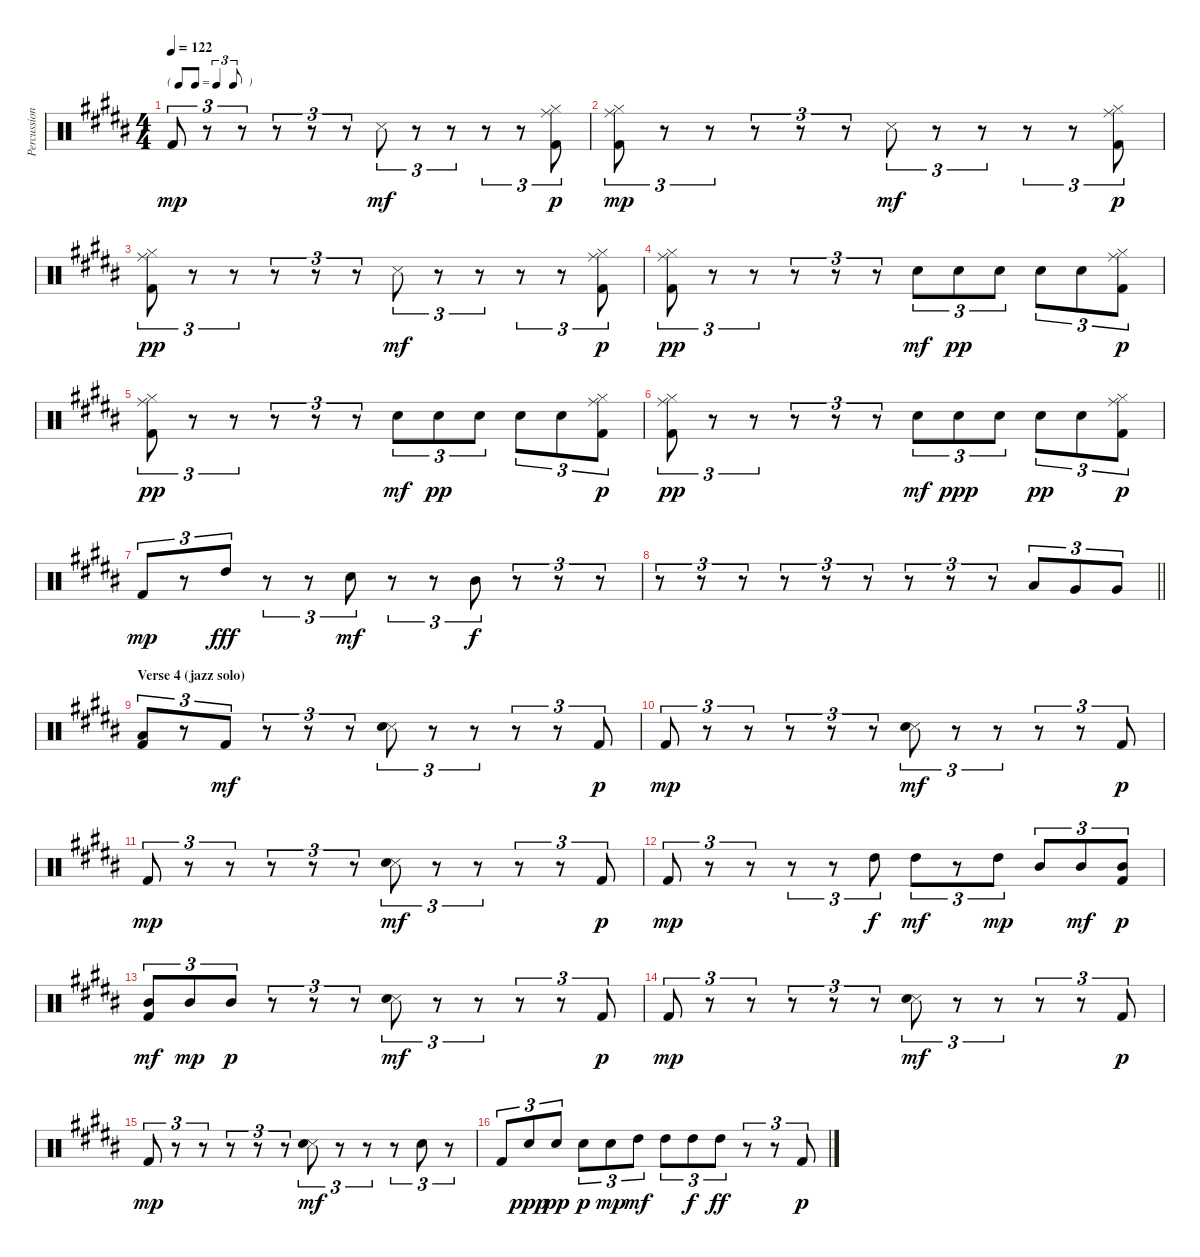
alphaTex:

\track ("Percussion" "Percussion") {instrument percussion}
\staff {score}
\articulation defaults
\ts (4 4)
\tf triplet8th
\tempo 122
\clef neutral
\ks g#minor "Kick (hit) 2".8{tu (3 2) dy mp}
r.8{tu (3 2)} r.8{tu (3 2)} r.8{tu (3 2)} r.8{tu (3 2)} r.8{tu (3 2)} "Snare (side stick) 3".8{tu (3 2) dy mf} r.8{tu (3 2)} r.8{tu (3 2)} r.8{tu (3 2)} r.8{tu (3 2)} ("Ride (middle)" "Hi-Hat (closed)" "Kick (hit) 2").8{tu (3 2) dy p} |
("Ride (middle)" "Hi-Hat (closed)" "Kick (hit) 2").8{tu (3 2) dy mp} r.8{tu (3 2)} r.8{tu (3 2)} r.8{tu (3 2)} r.8{tu (3 2)} r.8{tu (3 2)} "Snare (side stick) 3".8{tu (3 2) dy mf} r.8{tu (3 2)} r.8{tu (3 2)} r.8{tu (3 2)} r.8{tu (3 2)} ("Ride (middle)" "Hi-Hat (closed)" "Kick (hit) 2").8{tu (3 2) dy p} |
("Ride (middle)" "Hi-Hat (closed)" "Kick (hit) 2").8{tu (3 2) dy pp} r.8{tu (3 2)} r.8{tu (3 2)} r.8{tu (3 2)} r.8{tu (3 2)} r.8{tu (3 2)} "Snare (side stick) 3".8{tu (3 2) dy mf} r.8{tu (3 2)} r.8{tu (3 2)} r.8{tu (3 2)} r.8{tu (3 2)} ("Ride (middle)" "Hi-Hat (closed)" "Kick (hit) 2").8{tu (3 2) dy p} |
("Ride (middle)" "Hi-Hat (closed)" "Kick (hit) 2").8{tu (3 2) dy pp} r.8{tu (3 2)} r.8{tu (3 2)} r.8{tu (3 2)} r.8{tu (3 2)} r.8{tu (3 2)} "Snare (hit) 2".8{tu (3 2) dy mf} "Snare (hit) 2".8{tu (3 2) dy pp} "Snare (hit) 2".8{tu (3 2)} "Snare (hit) 2".8{tu (3 2)} "Snare (hit) 2".8{tu (3 2)} ("Ride (middle)" "Hi-Hat (closed)" "Kick (hit) 2").8{tu (3 2) dy p} |
("Ride (middle)" "Hi-Hat (closed)" "Kick (hit) 2").8{tu (3 2) dy pp} r.8{tu (3 2)} r.8{tu (3 2)} r.8{tu (3 2)} r.8{tu (3 2)} r.8{tu (3 2)} "Snare (hit) 2".8{tu (3 2) dy mf} "Snare (hit) 2".8{tu (3 2) dy pp} "Snare (hit) 2".8{tu (3 2)} "Snare (hit) 2".8{tu (3 2)} "Snare (hit) 2".8{tu (3 2)} ("Ride (middle)" "Hi-Hat (closed)" "Kick (hit) 2").8{tu (3 2) dy p} |
("Ride (middle)" "Hi-Hat (closed)" "Kick (hit) 2").8{tu (3 2) dy pp} r.8{tu (3 2)} r.8{tu (3 2)} r.8{tu (3 2)} r.8{tu (3 2)} r.8{tu (3 2)} "Snare (hit) 2".8{tu (3 2) dy mf} "Snare (hit) 2".8{tu (3 2) dy ppp} "Snare (hit) 2".8{tu (3 2)} "Snare (hit) 2".8{tu (3 2) dy pp} "Snare (hit) 2".8{tu (3 2)} ("Ride (middle)" "Hi-Hat (closed)" "Kick (hit) 2").8{tu (3 2) dy p} |
"Kick (hit) 2".8{tu (3 2) dy mp} r.8{tu (3 2)} "High Tom (hit)".8{tu (3 2) dy fff} r.8{tu (3 2)} r.8{tu (3 2)} "Snare (hit) 2".8{tu (3 2) dy mf} r.8{tu (3 2)} r.8{tu (3 2)} "Mid Tom (hit)".8{tu (3 2) dy f} r.8{tu (3 2)} r.8{tu (3 2)} r.8{tu (3 2)} |
\barLineRight lightlight
r.8{tu (3 2)} r.8{tu (3 2)} r.8{tu (3 2)} r.8{tu (3 2)} r.8{tu (3 2)} r.8{tu (3 2)} r.8{tu (3 2)} r.8{tu (3 2)} r.8{tu (3 2)} "Low Tom (hit)".8{tu (3 2)} "Very Low Tom (hit)".8{tu (3 2)} "Very Low Tom (hit)".8{tu (3 2)} |
\section ("" "Verse 4 (jazz solo)")
("Low Floor Tom (hit)" "Kick (hit) 2").8{tu (3 2)} r.8{tu (3 2)} "Kick (hit) 2".8{tu (3 2) dy mf} r.8{tu (3 2)} r.8{tu (3 2)} r.8{tu (3 2)} ("Snare (side stick) 3" "Snare (hit) 2").8{tu (3 2)} r.8{tu (3 2)} r.8{tu (3 2)} r.8{tu (3 2)} r.8{tu (3 2)} "Kick (hit) 2".8{tu (3 2) dy p} |
"Kick (hit) 2".8{tu (3 2) dy mp} r.8{tu (3 2)} r.8{tu (3 2)} r.8{tu (3 2)} r.8{tu (3 2)} r.8{tu (3 2)} ("Snare (side stick) 3" "Snare (hit) 2").8{tu (3 2) dy mf} r.8{tu (3 2)} r.8{tu (3 2)} r.8{tu (3 2)} r.8{tu (3 2)} "Kick (hit) 2".8{tu (3 2) dy p} |
"Kick (hit) 2".8{tu (3 2) dy mp} r.8{tu (3 2)} r.8{tu (3 2)} r.8{tu (3 2)} r.8{tu (3 2)} r.8{tu (3 2)} ("Snare (side stick) 3" "Snare (hit) 2").8{tu (3 2) dy mf} r.8{tu (3 2)} r.8{tu (3 2)} r.8{tu (3 2)} r.8{tu (3 2)} "Kick (hit) 2".8{tu (3 2) dy p} |
"Kick (hit) 2".8{tu (3 2) dy mp} r.8{tu (3 2)} r.8{tu (3 2)} r.8{tu (3 2)} r.8{tu (3 2)} "High Tom (hit)".8{tu (3 2) dy f} "High Tom (hit)".8{tu (3 2) dy mf} r.8{tu (3 2)} "High Tom (hit)".8{tu (3 2) dy mp} "Mid Tom (hit)".8{tu (3 2)} "Mid Tom (hit)".8{tu (3 2) dy mf} ("Mid Tom (hit)" "Kick (hit) 2").8{tu (3 2) dy p} |
("Mid Tom (hit)" "Kick (hit) 2").8{tu (3 2) dy mf} "Mid Tom (hit)".8{tu (3 2) dy mp} "Mid Tom (hit)".8{tu (3 2) dy p} r.8{tu (3 2)} r.8{tu (3 2)} r.8{tu (3 2)} ("Snare (side stick) 3" "Snare (hit) 2").8{tu (3 2) dy mf} r.8{tu (3 2)} r.8{tu (3 2)} r.8{tu (3 2)} r.8{tu (3 2)} "Kick (hit) 2".8{tu (3 2) dy p} |
"Kick (hit) 2".8{tu (3 2) dy mp} r.8{tu (3 2)} r.8{tu (3 2)} r.8{tu (3 2)} r.8{tu (3 2)} r.8{tu (3 2)} ("Snare (side stick) 3" "Snare (hit) 2").8{tu (3 2) dy mf} r.8{tu (3 2)} r.8{tu (3 2)} r.8{tu (3 2)} r.8{tu (3 2)} "Kick (hit) 2".8{tu (3 2) dy p} |
"Kick (hit) 2".8{tu (3 2) dy mp} r.8{tu (3 2)} r.8{tu (3 2)} r.8{tu (3 2)} r.8{tu (3 2)} r.8{tu (3 2)} ("Snare (side stick) 3" "Snare (hit) 2").8{tu (3 2) dy mf} r.8{tu (3 2)} r.8{tu (3 2)} r.8{tu (3 2)} "Snare (hit) 2".8{tu (3 2)} r.8{tu (3 2)} |
"Kick (hit) 2".8{tu (3 2)} "Snare (hit) 2".8{tu (3 2) dy ppp} "Snare (hit) 2".8{tu (3 2) dy pp} "Snare (hit) 2".8{tu (3 2) dy p} "Snare (hit) 2".8{tu (3 2) dy mp} "High Tom (hit)".8{tu (3 2) dy mf} "High Tom (hit)".8{tu (3 2)} "High Tom (hit)".8{tu (3 2) dy f} "High Tom (hit)".8{tu (3 2) dy ff} r.8{tu (3 2)} r.8{tu (3 2)} "Kick (hit) 2".8{tu (3 2) dy p}
